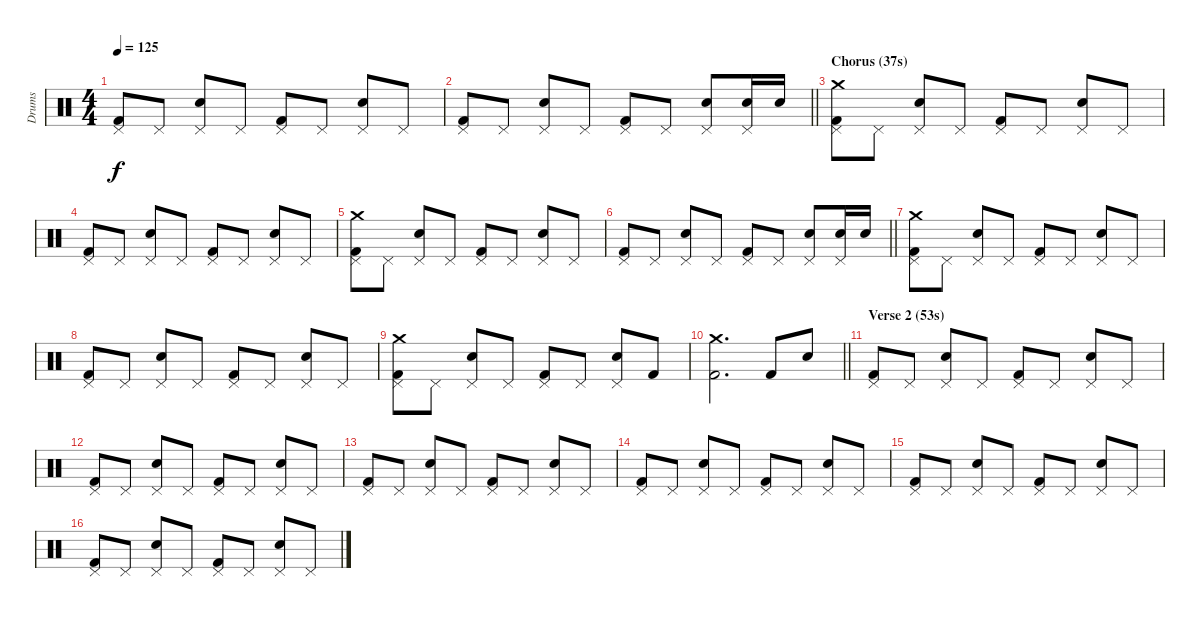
\track ("Drums" "Drums") {instrument percussion}
\staff {score}
\articulation defaults
\ts (4 4)
\tempo 125
\clef neutral
\ks c
("Pedal Hi-Hat (hit)" "Kick (hit) 2").8{dy f} "Pedal Hi-Hat (hit)".8 ("Pedal Hi-Hat (hit)" "Electric Snare (hit)").8 "Pedal Hi-Hat (hit)".8 ("Pedal Hi-Hat (hit)" "Kick (hit) 2").8 "Pedal Hi-Hat (hit)".8 ("Pedal Hi-Hat (hit)" "Electric Snare (hit)").8 "Pedal Hi-Hat (hit)".8 |
\barLineRight lightlight
("Pedal Hi-Hat (hit)" "Kick (hit) 2").8 "Pedal Hi-Hat (hit)".8 ("Pedal Hi-Hat (hit)" "Electric Snare (hit)").8 "Pedal Hi-Hat (hit)".8 ("Pedal Hi-Hat (hit)" "Kick (hit) 2").8 "Pedal Hi-Hat (hit)".8 ("Pedal Hi-Hat (hit)" "Electric Snare (hit)").8 ("Pedal Hi-Hat (hit)" "Electric Snare (hit)").16 "Electric Snare (hit)".16 |
\section ("" "Chorus (37s)")
("Pedal Hi-Hat (hit)" "Crash medium (hit)" "Kick (hit) 2").8 "Pedal Hi-Hat (hit)".8 ("Pedal Hi-Hat (hit)" "Electric Snare (hit)").8 "Pedal Hi-Hat (hit)".8 ("Pedal Hi-Hat (hit)" "Kick (hit) 2").8 "Pedal Hi-Hat (hit)".8 ("Pedal Hi-Hat (hit)" "Electric Snare (hit)").8 "Pedal Hi-Hat (hit)".8 |
("Pedal Hi-Hat (hit)" "Kick (hit) 2").8 "Pedal Hi-Hat (hit)".8 ("Pedal Hi-Hat (hit)" "Electric Snare (hit)").8 "Pedal Hi-Hat (hit)".8 ("Pedal Hi-Hat (hit)" "Kick (hit) 2").8 "Pedal Hi-Hat (hit)".8 ("Pedal Hi-Hat (hit)" "Electric Snare (hit)").8 "Pedal Hi-Hat (hit)".8 |
("Pedal Hi-Hat (hit)" "Crash medium (hit)" "Kick (hit) 2").8 "Pedal Hi-Hat (hit)".8 ("Pedal Hi-Hat (hit)" "Electric Snare (hit)").8 "Pedal Hi-Hat (hit)".8 ("Pedal Hi-Hat (hit)" "Kick (hit) 2").8 "Pedal Hi-Hat (hit)".8 ("Pedal Hi-Hat (hit)" "Electric Snare (hit)").8 "Pedal Hi-Hat (hit)".8 |
\barLineRight lightlight
("Pedal Hi-Hat (hit)" "Kick (hit) 2").8 "Pedal Hi-Hat (hit)".8 ("Pedal Hi-Hat (hit)" "Electric Snare (hit)").8 "Pedal Hi-Hat (hit)".8 ("Pedal Hi-Hat (hit)" "Kick (hit) 2").8 "Pedal Hi-Hat (hit)".8 ("Pedal Hi-Hat (hit)" "Electric Snare (hit)").8 ("Pedal Hi-Hat (hit)" "Electric Snare (hit)").16 "Electric Snare (hit)".16 |
("Pedal Hi-Hat (hit)" "Crash medium (hit)" "Kick (hit) 2").8 "Pedal Hi-Hat (hit)".8 ("Pedal Hi-Hat (hit)" "Electric Snare (hit)").8 "Pedal Hi-Hat (hit)".8 ("Pedal Hi-Hat (hit)" "Kick (hit) 2").8 "Pedal Hi-Hat (hit)".8 ("Pedal Hi-Hat (hit)" "Electric Snare (hit)").8 "Pedal Hi-Hat (hit)".8 |
("Pedal Hi-Hat (hit)" "Kick (hit) 2").8 "Pedal Hi-Hat (hit)".8 ("Pedal Hi-Hat (hit)" "Electric Snare (hit)").8 "Pedal Hi-Hat (hit)".8 ("Pedal Hi-Hat (hit)" "Kick (hit) 2").8 "Pedal Hi-Hat (hit)".8 ("Pedal Hi-Hat (hit)" "Electric Snare (hit)").8 "Pedal Hi-Hat (hit)".8 |
("Pedal Hi-Hat (hit)" "Crash medium (hit)" "Kick (hit) 2").8 "Pedal Hi-Hat (hit)".8 ("Pedal Hi-Hat (hit)" "Electric Snare (hit)").8 "Pedal Hi-Hat (hit)".8 ("Pedal Hi-Hat (hit)" "Kick (hit) 2").8 "Pedal Hi-Hat (hit)".8 ("Pedal Hi-Hat (hit)" "Electric Snare (hit)").8 "Kick (hit) 2".8 |
\barLineRight lightlight
("Crash medium (hit)" "Kick (hit) 2").2{d} "Kick (hit) 2".8 "Electric Snare (hit)".8 |
\section ("" "Verse 2 (53s)")
("Pedal Hi-Hat (hit)" "Kick (hit) 2").8 "Pedal Hi-Hat (hit)".8 ("Pedal Hi-Hat (hit)" "Electric Snare (hit)").8 "Pedal Hi-Hat (hit)".8 ("Pedal Hi-Hat (hit)" "Kick (hit) 2").8 "Pedal Hi-Hat (hit)".8 ("Pedal Hi-Hat (hit)" "Electric Snare (hit)").8 "Pedal Hi-Hat (hit)".8 |
("Pedal Hi-Hat (hit)" "Kick (hit) 2").8 "Pedal Hi-Hat (hit)".8 ("Pedal Hi-Hat (hit)" "Electric Snare (hit)").8 "Pedal Hi-Hat (hit)".8 ("Pedal Hi-Hat (hit)" "Kick (hit) 2").8 "Pedal Hi-Hat (hit)".8 ("Pedal Hi-Hat (hit)" "Electric Snare (hit)").8 "Pedal Hi-Hat (hit)".8 |
("Pedal Hi-Hat (hit)" "Kick (hit) 2").8 "Pedal Hi-Hat (hit)".8 ("Pedal Hi-Hat (hit)" "Electric Snare (hit)").8 "Pedal Hi-Hat (hit)".8 ("Pedal Hi-Hat (hit)" "Kick (hit) 2").8 "Pedal Hi-Hat (hit)".8 ("Pedal Hi-Hat (hit)" "Electric Snare (hit)").8 "Pedal Hi-Hat (hit)".8 |
("Pedal Hi-Hat (hit)" "Kick (hit) 2").8 "Pedal Hi-Hat (hit)".8 ("Pedal Hi-Hat (hit)" "Electric Snare (hit)").8 "Pedal Hi-Hat (hit)".8 ("Pedal Hi-Hat (hit)" "Kick (hit) 2").8 "Pedal Hi-Hat (hit)".8 ("Pedal Hi-Hat (hit)" "Electric Snare (hit)").8 "Pedal Hi-Hat (hit)".8 |
("Pedal Hi-Hat (hit)" "Kick (hit) 2").8 "Pedal Hi-Hat (hit)".8 ("Pedal Hi-Hat (hit)" "Electric Snare (hit)").8 "Pedal Hi-Hat (hit)".8 ("Pedal Hi-Hat (hit)" "Kick (hit) 2").8 "Pedal Hi-Hat (hit)".8 ("Pedal Hi-Hat (hit)" "Electric Snare (hit)").8 "Pedal Hi-Hat (hit)".8 |
("Pedal Hi-Hat (hit)" "Kick (hit) 2").8 "Pedal Hi-Hat (hit)".8 ("Pedal Hi-Hat (hit)" "Electric Snare (hit)").8 "Pedal Hi-Hat (hit)".8 ("Pedal Hi-Hat (hit)" "Kick (hit) 2").8 "Pedal Hi-Hat (hit)".8 ("Pedal Hi-Hat (hit)" "Electric Snare (hit)").8 "Pedal Hi-Hat (hit)".8
